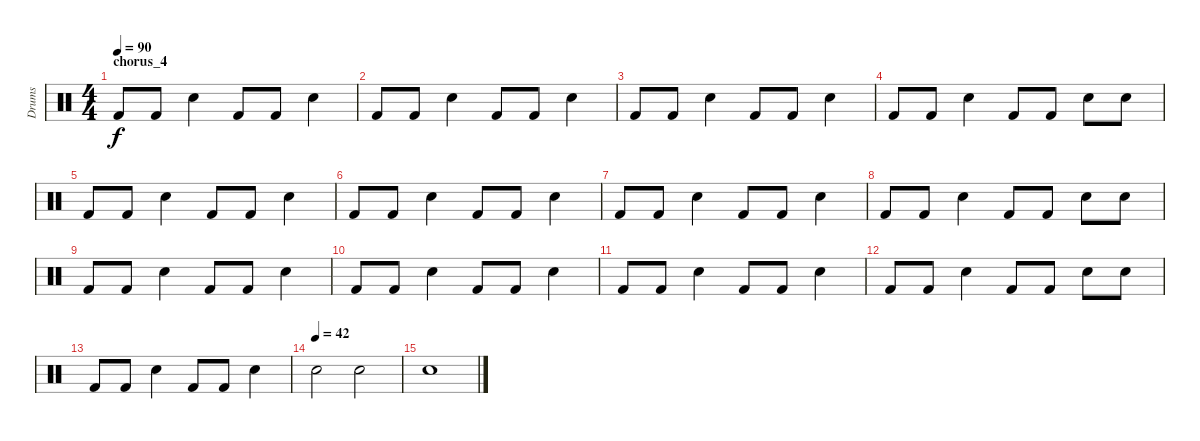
\track ("Drums" "Drums") {instrument percussion}
\staff {score}
\articulation defaults
\ts (4 4)
\section ("" "chorus_4")
\tempo 90
\clef neutral
\ks c "Kick (hit) 2".8{dy f} "Kick (hit) 2".8 "Electric Snare (hit)".4 "Kick (hit) 2".8 "Kick (hit) 2".8 "Electric Snare (hit)".4
|
"Kick (hit) 2".8 "Kick (hit) 2".8 "Electric Snare (hit)".4 "Kick (hit) 2".8 "Kick (hit) 2".8 "Electric Snare (hit)".4 |
"Kick (hit) 2".8 "Kick (hit) 2".8 "Electric Snare (hit)".4 "Kick (hit) 2".8 "Kick (hit) 2".8 "Electric Snare (hit)".4 |
"Kick (hit) 2".8 "Kick (hit) 2".8 "Electric Snare (hit)".4 "Kick (hit) 2".8 "Kick (hit) 2".8 "Electric Snare (hit)".8 "Snare (hit) 2".8 |
"Kick (hit) 2".8 "Kick (hit) 2".8 "Electric Snare (hit)".4 "Kick (hit) 2".8 "Kick (hit) 2".8 "Electric Snare (hit)".4 |
"Kick (hit) 2".8 "Kick (hit) 2".8 "Electric Snare (hit)".4 "Kick (hit) 2".8 "Kick (hit) 2".8 "Electric Snare (hit)".4 |
"Kick (hit) 2".8 "Kick (hit) 2".8 "Electric Snare (hit)".4 "Kick (hit) 2".8 "Kick (hit) 2".8 "Electric Snare (hit)".4 |
"Kick (hit) 2".8 "Kick (hit) 2".8 "Electric Snare (hit)".4 "Kick (hit) 2".8 "Kick (hit) 2".8 "Electric Snare (hit)".8 "Snare (hit) 2".8 |
"Kick (hit) 2".8 "Kick (hit) 2".8 "Electric Snare (hit)".4 "Kick (hit) 2".8 "Kick (hit) 2".8 "Electric Snare (hit)".4 |
"Kick (hit) 2".8 "Kick (hit) 2".8 "Electric Snare (hit)".4 "Kick (hit) 2".8 "Kick (hit) 2".8 "Electric Snare (hit)".4 |
"Kick (hit) 2".8 "Kick (hit) 2".8 "Electric Snare (hit)".4 "Kick (hit) 2".8 "Kick (hit) 2".8 "Electric Snare (hit)".4 |
"Kick (hit) 2".8 "Kick (hit) 2".8 "Electric Snare (hit)".4 "Kick (hit) 2".8 "Kick (hit) 2".8 "Electric Snare (hit)".8 "Snare (hit) 2".8 |
"Kick (hit) 2".8 "Kick (hit) 2".8 "Electric Snare (hit)".4 "Kick (hit) 2".8 "Kick (hit) 2".8 "Electric Snare (hit)".4 |
\tempo (42)
"Electric Snare (hit)".2 "Electric Snare (hit)".2 |
"Electric Snare (hit)".1
